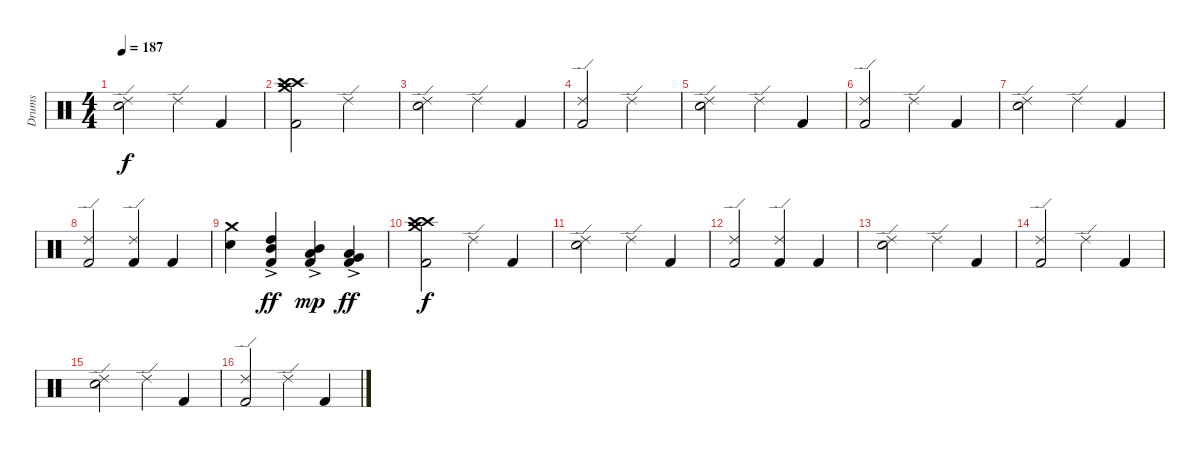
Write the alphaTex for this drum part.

\track ("Drums" "Drums") {instrument percussion}
\staff {score}
\articulation defaults
\ts (4 4)
\tempo 187
\clef neutral
\ks c
("Ride (edge) 2" "Snare (hit) 2").2{dy f} "Ride (edge) 2".4 "Kick (hit) 2".4 |
("Crash high (hit)" "Crash high (hit)" "Crash medium (hit)" "Kick (hit) 2").2 "Ride (edge) 2".2 |
("Ride (edge) 2" "Snare (hit) 2").2 "Ride (edge) 2".4 "Kick (hit) 2".4 |
("Kick (hit) 2" "Ride (edge) 2").2 "Ride (edge) 2".2 |
("Ride (edge) 2" "Snare (hit) 2").2 "Ride (edge) 2".4 "Kick (hit) 2".4 |
("Kick (hit) 2" "Ride (edge) 2").2 "Ride (edge) 2".4 "Kick (hit) 2".4 |
("Ride (edge) 2" "Snare (hit) 2").2 "Ride (edge) 2".4 "Kick (hit) 2".4 |
("Kick (hit) 2" "Ride (edge) 2").2 ("Ride (edge) 2" "Kick (hit) 2").4 "Kick (hit) 2".4 |
("Snare (hit) 2" "Crash medium (hit)").4 ("Kick (hit) 2" "High Tom (hit)"{ac} "Mid Tom (hit)"{ac}).4{dy ff} ("Low Tom (hit)"{ac} "Mid Tom (hit)"{ac} "Kick (hit) 2").4{dy mp} ("Low Tom (hit)"{ac} "Very Low Tom (hit)"{ac} "Kick (hit) 2").4{dy ff} |
("Crash high (hit)" "Crash high (hit)" "Crash medium (hit)" "Kick (hit) 2").2{dy f} "Ride (edge) 2".4 "Kick (hit) 2".4 |
("Ride (edge) 2" "Snare (hit) 2").2 "Ride (edge) 2".4 "Kick (hit) 2".4 |
("Kick (hit) 2" "Ride (edge) 2").2 ("Kick (hit) 2" "Ride (edge) 2").4 "Kick (hit) 2".4 |
("Ride (edge) 2" "Snare (hit) 2").2 "Ride (edge) 2".4 "Kick (hit) 2".4 |
("Kick (hit) 2" "Ride (edge) 2").2 "Ride (edge) 2".4 "Kick (hit) 2".4 |
("Ride (edge) 2" "Snare (hit) 2").2 "Ride (edge) 2".4 "Kick (hit) 2".4 |
("Kick (hit) 2" "Ride (edge) 2").2 "Ride (edge) 2".4 "Kick (hit) 2".4
